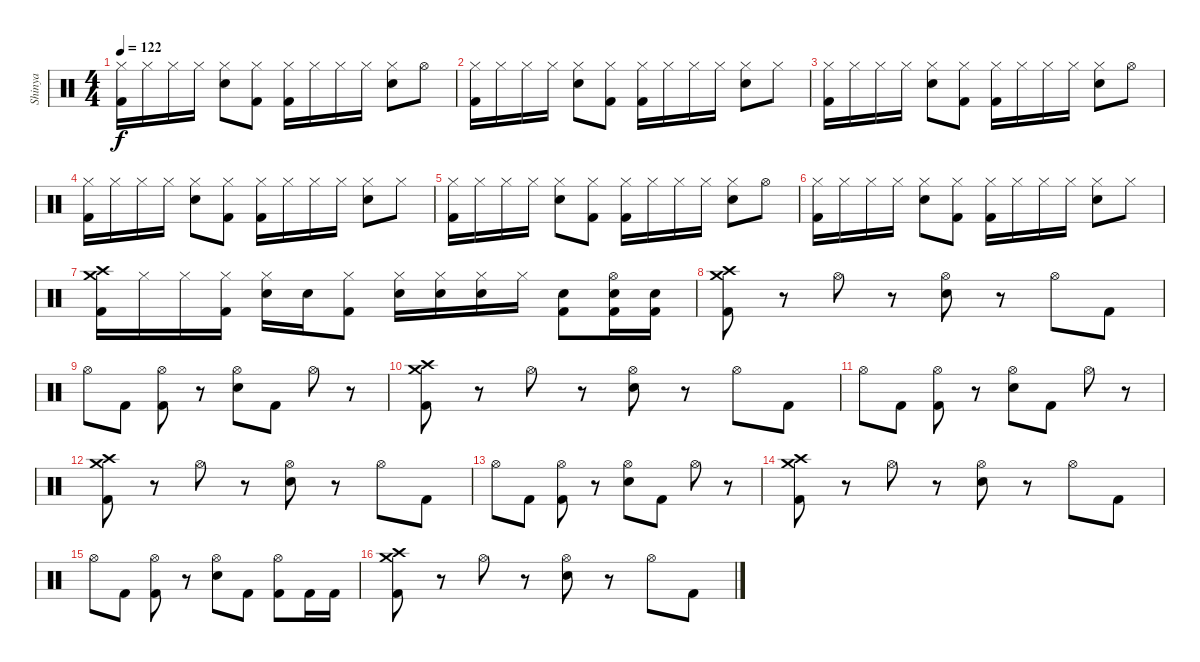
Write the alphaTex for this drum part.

\track ("Shinya" "Shinya") {instrument percussion}
\staff {score}
\articulation defaults
\ts (4 4)
\tempo 122
\clef neutral
\ks c
("Hi-Hat (closed)" "Kick (hit) 2").16{dy f} "Hi-Hat (closed)".16 "Hi-Hat (closed)".16 "Hi-Hat (closed)".16 ("Hi-Hat (closed)" "Electric Snare (hit)").8 ("Hi-Hat (closed)" "Kick (hit) 2").8 ("Hi-Hat (closed)" "Kick (hit) 2").16 "Hi-Hat (closed)".16 "Hi-Hat (closed)".16 "Hi-Hat (closed)".16 ("Hi-Hat (closed)" "Electric Snare (hit)").8 "Hi-Hat (open)".8 |
("Hi-Hat (closed)" "Kick (hit) 2").16 "Hi-Hat (closed)".16 "Hi-Hat (closed)".16 "Hi-Hat (closed)".16 ("Hi-Hat (closed)" "Electric Snare (hit)").8 ("Hi-Hat (closed)" "Kick (hit) 2").8 ("Hi-Hat (closed)" "Kick (hit) 2").16 "Hi-Hat (closed)".16 "Hi-Hat (closed)".16 "Hi-Hat (closed)".16 ("Hi-Hat (closed)" "Electric Snare (hit)").8 "Hi-Hat (closed)".8 |
("Hi-Hat (closed)" "Kick (hit) 2").16 "Hi-Hat (closed)".16 "Hi-Hat (closed)".16 "Hi-Hat (closed)".16 ("Hi-Hat (closed)" "Electric Snare (hit)").8 ("Hi-Hat (closed)" "Kick (hit) 2").8 ("Hi-Hat (closed)" "Kick (hit) 2").16 "Hi-Hat (closed)".16 "Hi-Hat (closed)".16 "Hi-Hat (closed)".16 ("Hi-Hat (closed)" "Electric Snare (hit)").8 "Hi-Hat (open)".8 |
("Hi-Hat (closed)" "Kick (hit) 2").16 "Hi-Hat (closed)".16 "Hi-Hat (closed)".16 "Hi-Hat (closed)".16 ("Hi-Hat (closed)" "Electric Snare (hit)").8 ("Hi-Hat (closed)" "Kick (hit) 2").8 ("Hi-Hat (closed)" "Kick (hit) 2").16 "Hi-Hat (closed)".16 "Hi-Hat (closed)".16 "Hi-Hat (closed)".16 ("Hi-Hat (closed)" "Electric Snare (hit)").8 "Hi-Hat (closed)".8 |
("Hi-Hat (closed)" "Kick (hit) 2").16 "Hi-Hat (closed)".16 "Hi-Hat (closed)".16 "Hi-Hat (closed)".16 ("Hi-Hat (closed)" "Electric Snare (hit)").8 ("Hi-Hat (closed)" "Kick (hit) 2").8 ("Hi-Hat (closed)" "Kick (hit) 2").16 "Hi-Hat (closed)".16 "Hi-Hat (closed)".16 "Hi-Hat (closed)".16 ("Hi-Hat (closed)" "Electric Snare (hit)").8 "Hi-Hat (open)".8 |
("Hi-Hat (closed)" "Kick (hit) 2").16 "Hi-Hat (closed)".16 "Hi-Hat (closed)".16 "Hi-Hat (closed)".16 ("Hi-Hat (closed)" "Electric Snare (hit)").8 ("Hi-Hat (closed)" "Kick (hit) 2").8 ("Hi-Hat (closed)" "Kick (hit) 2").16 "Hi-Hat (closed)".16 "Hi-Hat (closed)".16 "Hi-Hat (closed)".16 ("Hi-Hat (closed)" "Electric Snare (hit)").8 "Hi-Hat (closed)".8 |
("Crash high (hit)" "Crash medium (hit)" "Kick (hit) 2").16 "Hi-Hat (closed)".16 "Hi-Hat (closed)".16 ("Hi-Hat (closed)" "Kick (hit) 2").16 ("Hi-Hat (closed)" "Electric Snare (hit)").16 "Electric Snare (hit)".16 ("Hi-Hat (closed)" "Kick (hit) 2").8 ("Hi-Hat (closed)" "Electric Snare (hit)").16 ("Hi-Hat (closed)" "Electric Snare (hit)").16 ("Hi-Hat (closed)" "Electric Snare (hit)").16 "Hi-Hat (closed)".16 ("Electric Snare (hit)" "Kick (hit) 2").8 ("Hi-Hat (open)" "Electric Snare (hit)" "Kick (hit) 2").16 ("Electric Snare (hit)" "Kick (hit) 2").16 |
("Crash high (hit)" "Crash medium (hit)" "Kick (hit) 2").8 r.8 "Hi-Hat (open)".8 r.8 ("Hi-Hat (open)" "Electric Snare (hit)").8 r.8 "Hi-Hat (open)".8 "Kick (hit) 2".8 |
"Hi-Hat (open)".8 "Kick (hit) 2".8 ("Hi-Hat (open)" "Kick (hit) 2").8 r.8 ("Hi-Hat (open)" "Electric Snare (hit)").8 "Kick (hit) 2".8 "Hi-Hat (open)".8 r.8 |
("Crash high (hit)" "Crash medium (hit)" "Kick (hit) 2").8 r.8 "Hi-Hat (open)".8 r.8 ("Hi-Hat (open)" "Electric Snare (hit)").8 r.8 "Hi-Hat (open)".8 "Kick (hit) 2".8 |
"Hi-Hat (open)".8 "Kick (hit) 2".8 ("Hi-Hat (open)" "Kick (hit) 2").8 r.8 ("Hi-Hat (open)" "Electric Snare (hit)").8 "Kick (hit) 2".8 "Hi-Hat (open)".8 r.8 |
("Crash high (hit)" "Crash medium (hit)" "Kick (hit) 2").8 r.8 "Hi-Hat (open)".8 r.8 ("Hi-Hat (open)" "Electric Snare (hit)").8 r.8 "Hi-Hat (open)".8 "Kick (hit) 2".8 |
"Hi-Hat (open)".8 "Kick (hit) 2".8 ("Hi-Hat (open)" "Kick (hit) 2").8 r.8 ("Hi-Hat (open)" "Electric Snare (hit)").8 "Kick (hit) 2".8 "Hi-Hat (open)".8 r.8 |
("Crash high (hit)" "Crash medium (hit)" "Kick (hit) 2").8 r.8 "Hi-Hat (open)".8 r.8 ("Hi-Hat (open)" "Electric Snare (hit)").8 r.8 "Hi-Hat (open)".8 "Kick (hit) 2".8 |
"Hi-Hat (open)".8 "Kick (hit) 2".8 ("Hi-Hat (open)" "Kick (hit) 2").8 r.8 ("Hi-Hat (open)" "Electric Snare (hit)").8 "Kick (hit) 2".8 ("Hi-Hat (open)" "Kick (hit) 2").8 "Kick (hit) 2".16 "Kick (hit) 2".16 |
("Crash high (hit)" "Crash medium (hit)" "Kick (hit) 2").8 r.8 "Hi-Hat (open)".8 r.8 ("Hi-Hat (open)" "Electric Snare (hit)").8 r.8 "Hi-Hat (open)".8 "Kick (hit) 2".8
